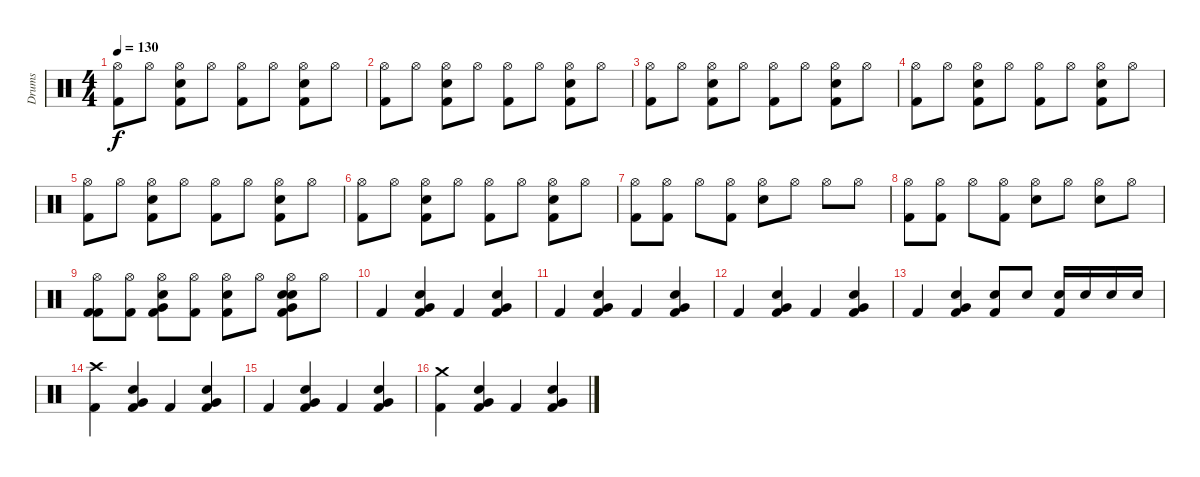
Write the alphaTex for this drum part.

\track ("Drums" "Drums") {instrument percussion}
\staff {score}
\articulation defaults
\ts (4 4)
\tempo 130
\clef neutral
\ks c
("Kick (hit) 2" "Hi-Hat (open)").8{dy f} "Hi-Hat (open)".8 ("Electric Snare (hit)" "Kick (hit) 2" "Hi-Hat (open)").8 "Hi-Hat (open)".8 ("Kick (hit) 2" "Hi-Hat (open)").8 "Hi-Hat (open)".8 ("Electric Snare (hit)" "Kick (hit) 2" "Hi-Hat (open)").8 "Hi-Hat (open)".8 |
("Kick (hit) 2" "Hi-Hat (open)").8 "Hi-Hat (open)".8 ("Electric Snare (hit)" "Kick (hit) 2" "Hi-Hat (open)").8 "Hi-Hat (open)".8 ("Kick (hit) 2" "Hi-Hat (open)").8 "Hi-Hat (open)".8 ("Electric Snare (hit)" "Kick (hit) 2" "Hi-Hat (open)").8 "Hi-Hat (open)".8 |
("Kick (hit) 2" "Hi-Hat (open)").8 "Hi-Hat (open)".8 ("Electric Snare (hit)" "Kick (hit) 2" "Hi-Hat (open)").8 "Hi-Hat (open)".8 ("Kick (hit) 2" "Hi-Hat (open)").8 "Hi-Hat (open)".8 ("Electric Snare (hit)" "Kick (hit) 2" "Hi-Hat (open)").8 "Hi-Hat (open)".8 |
("Kick (hit) 2" "Hi-Hat (open)").8 "Hi-Hat (open)".8 ("Electric Snare (hit)" "Kick (hit) 2" "Hi-Hat (open)").8 "Hi-Hat (open)".8 ("Kick (hit) 2" "Hi-Hat (open)").8 "Hi-Hat (open)".8 ("Electric Snare (hit)" "Kick (hit) 2" "Hi-Hat (open)").8 "Hi-Hat (open)".8 |
("Kick (hit) 2" "Hi-Hat (open)").8 "Hi-Hat (open)".8 ("Electric Snare (hit)" "Kick (hit) 2" "Hi-Hat (open)").8 "Hi-Hat (open)".8 ("Kick (hit) 2" "Hi-Hat (open)").8 "Hi-Hat (open)".8 ("Electric Snare (hit)" "Kick (hit) 2" "Hi-Hat (open)").8 "Hi-Hat (open)".8 |
("Kick (hit) 2" "Hi-Hat (open)").8 "Hi-Hat (open)".8 ("Electric Snare (hit)" "Kick (hit) 2" "Hi-Hat (open)").8 "Hi-Hat (open)".8 ("Kick (hit) 2" "Hi-Hat (open)").8 "Hi-Hat (open)".8 ("Electric Snare (hit)" "Kick (hit) 2" "Hi-Hat (open)").8 "Hi-Hat (open)".8 |
("Kick (hit) 2" "Hi-Hat (open)").8 ("Kick (hit) 2" "Hi-Hat (open)").8 "Hi-Hat (open)".8 ("Kick (hit) 2" "Hi-Hat (open)").8 ("Electric Snare (hit)" "Hi-Hat (open)").8 "Hi-Hat (open)".8 "Hi-Hat (open)".8 "Hi-Hat (open)".8 |
("Kick (hit) 2" "Hi-Hat (open)").8 ("Kick (hit) 2" "Hi-Hat (open)").8 "Hi-Hat (open)".8 ("Kick (hit) 2" "Hi-Hat (open)").8 ("Electric Snare (hit)" "Hi-Hat (open)").8 "Hi-Hat (open)".8 ("Electric Snare (hit)" "Hi-Hat (open)").8 "Hi-Hat (open)".8 |
("Kick (hit) 2" "Kick (hit) 2" "Hi-Hat (open)").8 ("Kick (hit) 2" "Hi-Hat (open)").8 ("Electric Snare (hit)" "Very Low Tom (hit)" "Kick (hit) 2" "Hi-Hat (open)").8 ("Kick (hit) 2" "Hi-Hat (open)").8 ("Kick (hit) 2" "Electric Snare (hit)" "Hi-Hat (open)").8 "Hi-Hat (open)".8 ("Electric Snare (hit)" "Very Low Tom (hit)" "Kick (hit) 2" "Electric Snare (hit)" "Hi-Hat (open)").8 "Hi-Hat (open)".8 |
"Kick (hit) 2".4 ("Electric Snare (hit)" "Very Low Tom (hit)" "Kick (hit) 2").4 "Kick (hit) 2".4 ("Electric Snare (hit)" "Very Low Tom (hit)" "Kick (hit) 2").4 |
"Kick (hit) 2".4 ("Electric Snare (hit)" "Very Low Tom (hit)" "Kick (hit) 2").4 "Kick (hit) 2".4 ("Electric Snare (hit)" "Very Low Tom (hit)" "Kick (hit) 2").4 |
"Kick (hit) 2".4 ("Electric Snare (hit)" "Very Low Tom (hit)" "Kick (hit) 2").4 "Kick (hit) 2".4 ("Electric Snare (hit)" "Very Low Tom (hit)" "Kick (hit) 2").4 |
"Kick (hit) 2".4 ("Electric Snare (hit)" "Very Low Tom (hit)" "Kick (hit) 2").4 ("Electric Snare (hit)" "Kick (hit) 2").8 "Electric Snare (hit)".8 ("Electric Snare (hit)" "Kick (hit) 2").16 "Electric Snare (hit)".16 "Electric Snare (hit)".16 "Electric Snare (hit)".16 |
("Crash high (hit)" "Kick (hit) 2").4 ("Electric Snare (hit)" "Very Low Tom (hit)" "Kick (hit) 2").4 "Kick (hit) 2".4 ("Electric Snare (hit)" "Very Low Tom (hit)" "Kick (hit) 2").4 |
"Kick (hit) 2".4 ("Electric Snare (hit)" "Very Low Tom (hit)" "Kick (hit) 2").4 "Kick (hit) 2".4 ("Electric Snare (hit)" "Very Low Tom (hit)" "Kick (hit) 2").4 |
("Crash medium (hit)" "Kick (hit) 2").4 ("Electric Snare (hit)" "Very Low Tom (hit)" "Kick (hit) 2").4 "Kick (hit) 2".4 ("Electric Snare (hit)" "Very Low Tom (hit)" "Kick (hit) 2").4
